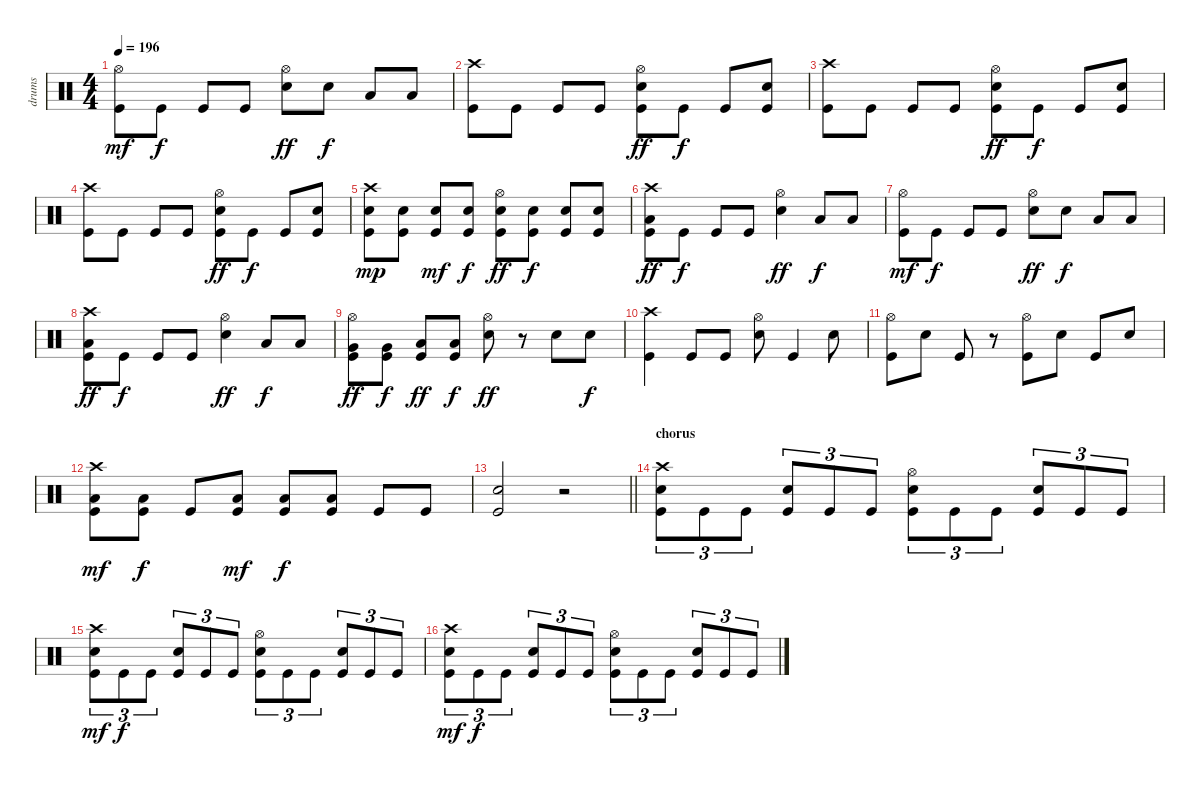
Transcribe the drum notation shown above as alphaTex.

\track ("drums" "drums") {instrument percussion}
\staff {score}
\articulation defaults
\ts (4 4)
\tempo 196
\clef neutral
\ks c
("Hi-Hat (open)" "Kick (hit)").8{dy mf} "Kick (hit)".8{dy f} "Kick (hit)".8 "Kick (hit)".8 ("Hi-Hat (open)" "Electric Snare (hit)").8{dy ff} "Electric Snare (hit)".8{dy f} "Low Floor Tom (hit)".8 "Low Floor Tom (hit)".8 |
("Crash high (hit)" "Kick (hit)").8 "Kick (hit)".8 "Kick (hit)".8 "Kick (hit)".8 ("Hi-Hat (open)" "Electric Snare (hit)" "Kick (hit)").8{dy ff} "Kick (hit)".8{dy f} "Kick (hit)".8 ("Electric Snare (hit)" "Kick (hit)").8 |
("Crash high (hit)" "Kick (hit)").8 "Kick (hit)".8 "Kick (hit)".8 "Kick (hit)".8 ("Hi-Hat (open)" "Electric Snare (hit)" "Kick (hit)").8{dy ff} "Kick (hit)".8{dy f} "Kick (hit)".8 ("Electric Snare (hit)" "Kick (hit)").8 |
("Crash high (hit)" "Kick (hit)").8 "Kick (hit)".8 "Kick (hit)".8 "Kick (hit)".8 ("Hi-Hat (open)" "Electric Snare (hit)" "Kick (hit)").8{dy ff} "Kick (hit)".8{dy f} "Kick (hit)".8 ("Electric Snare (hit)" "Kick (hit)").8 |
("Crash high (hit)" "Electric Snare (hit)" "Kick (hit)").8{dy mp} ("Electric Snare (hit)" "Kick (hit)").8 ("Electric Snare (hit)" "Kick (hit)").8{dy mf} ("Electric Snare (hit)" "Kick (hit)").8{dy f} ("Hi-Hat (open)" "Electric Snare (hit)" "Kick (hit)").8{dy ff} ("Electric Snare (hit)" "Kick (hit)").8{dy f} ("Electric Snare (hit)" "Kick (hit)").8 ("Electric Snare (hit)" "Kick (hit)").8 |
("Crash high (hit)" "Low Floor Tom (hit)" "Kick (hit)").8{dy ff} "Kick (hit)".8{dy f} "Kick (hit)".8 "Kick (hit)".8 ("Hi-Hat (open)" "Electric Snare (hit)").4{dy ff} "Low Floor Tom (hit)".8{dy f} "Low Floor Tom (hit)".8 |
("Hi-Hat (open)" "Kick (hit)").8{dy mf} "Kick (hit)".8{dy f} "Kick (hit)".8 "Kick (hit)".8 ("Hi-Hat (open)" "Electric Snare (hit)").8{dy ff} "Electric Snare (hit)".8{dy f} "Low Floor Tom (hit)".8 "Low Floor Tom (hit)".8 |
("Crash high (hit)" "Low Floor Tom (hit)" "Kick (hit)").8{dy ff} "Kick (hit)".8{dy f} "Kick (hit)".8 "Kick (hit)".8 ("Hi-Hat (open)" "Electric Snare (hit)").4{dy ff} "Low Floor Tom (hit)".8{dy f} "Low Floor Tom (hit)".8 |
("Hi-Hat (open)" "Very Low Tom (hit)" "Kick (hit)").8{dy ff} ("Very Low Tom (hit)" "Kick (hit)").8{dy f} ("Low Floor Tom (hit)" "Kick (hit)").8{dy ff} ("Low Floor Tom (hit)" "Kick (hit)").8{dy f} ("Hi-Hat (open)" "Electric Snare (hit)").8{dy ff} r.8 "Electric Snare (hit)".8 "Electric Snare (hit)".8{dy f} |
("Crash high (hit)" "Kick (hit)").4 "Kick (hit)".8 "Kick (hit)".8 ("Hi-Hat (open)" "Electric Snare (hit)").8 "Kick (hit)".4 "Electric Snare (hit)".8 |
("Hi-Hat (open)" "Kick (hit)").8 "Electric Snare (hit)".8 "Kick (hit)".8 r.8 ("Hi-Hat (open)" "Kick (hit)").8 "Electric Snare (hit)".8 "Kick (hit)".8 "Electric Snare (hit)".8 |
("Crash high (hit)" "Low Floor Tom (hit)" "Kick (hit)").8{dy mf} ("Low Floor Tom (hit)" "Kick (hit)").8{dy f} "Kick (hit)".8 ("Low Floor Tom (hit)" "Kick (hit)").8{dy mf} ("Low Floor Tom (hit)" "Kick (hit)").8{dy f} ("Low Floor Tom (hit)" "Kick (hit)").8 "Kick (hit)".8 "Kick (hit)".8 |
\barLineRight lightlight
("Electric Snare (hit)" "Kick (hit)").2 r.2 |
\section ("" "chorus")
("Crash high (hit)" "Electric Snare (hit)" "Kick (hit)").8{tu (3 2)} "Kick (hit)".8{tu (3 2)} "Kick (hit)".8{tu (3 2)} ("Electric Snare (hit)" "Kick (hit)").8{tu (3 2)} "Kick (hit)".8{tu (3 2)} "Kick (hit)".8{tu (3 2)} ("Hi-Hat (open)" "Electric Snare (hit)" "Kick (hit)").8{tu (3 2)} "Kick (hit)".8{tu (3 2)} "Kick (hit)".8{tu (3 2)} ("Electric Snare (hit)" "Kick (hit)").8{tu (3 2)} "Kick (hit)".8{tu (3 2)} "Kick (hit)".8{tu (3 2)} |
("Crash high (hit)" "Electric Snare (hit)" "Kick (hit)").8{tu (3 2) dy mf} "Kick (hit)".8{tu (3 2) dy f} "Kick (hit)".8{tu (3 2)} ("Electric Snare (hit)" "Kick (hit)").8{tu (3 2)} "Kick (hit)".8{tu (3 2)} "Kick (hit)".8{tu (3 2)} ("Hi-Hat (open)" "Electric Snare (hit)" "Kick (hit)").8{tu (3 2)} "Kick (hit)".8{tu (3 2)} "Kick (hit)".8{tu (3 2)} ("Electric Snare (hit)" "Kick (hit)").8{tu (3 2)} "Kick (hit)".8{tu (3 2)} "Kick (hit)".8{tu (3 2)} |
("Crash high (hit)" "Electric Snare (hit)" "Kick (hit)").8{tu (3 2) dy mf} "Kick (hit)".8{tu (3 2) dy f} "Kick (hit)".8{tu (3 2)} ("Electric Snare (hit)" "Kick (hit)").8{tu (3 2)} "Kick (hit)".8{tu (3 2)} "Kick (hit)".8{tu (3 2)} ("Hi-Hat (open)" "Electric Snare (hit)" "Kick (hit)").8{tu (3 2)} "Kick (hit)".8{tu (3 2)} "Kick (hit)".8{tu (3 2)} ("Electric Snare (hit)" "Kick (hit)").8{tu (3 2)} "Kick (hit)".8{tu (3 2)} "Kick (hit)".8{tu (3 2)}
